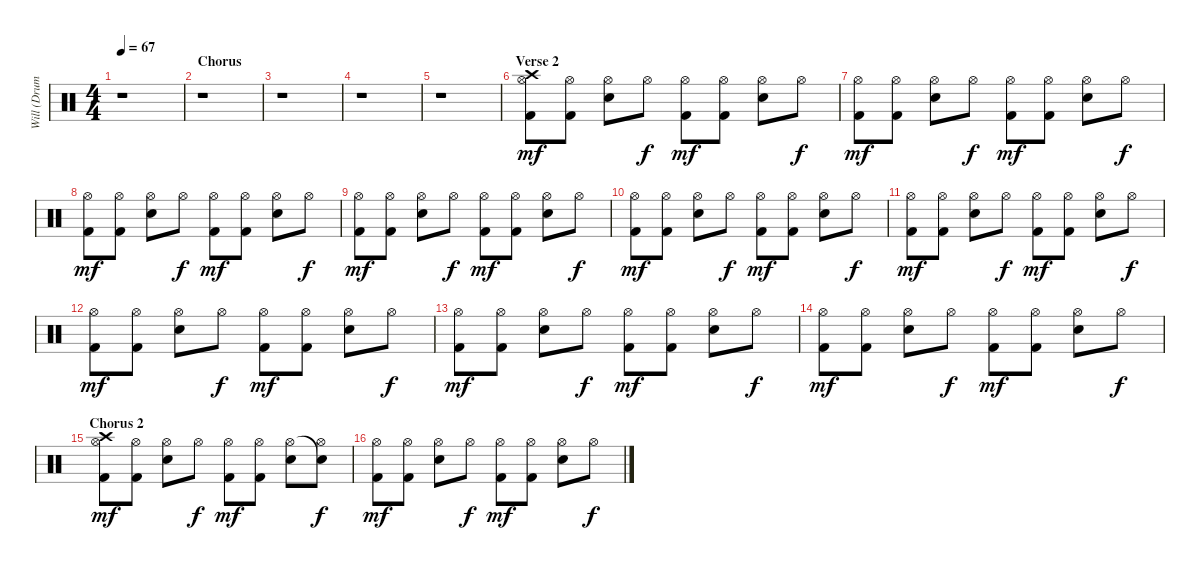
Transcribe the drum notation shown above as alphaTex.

\track ("Will (Drums)" "Will (Drum") {instrument percussion}
\staff {score}
\articulation defaults
\ts (4 4)
\tempo 67
\clef neutral
\ks c
r.1{dy mf} |
\section ("" "Chorus")
r.1 |
r.1 |
r.1 |
r.1 |
\section ("" "Verse 2")
("Kick (hit) 2" "Hi-Hat (open)" "Crash high (hit)").8 ("Kick (hit) 2" "Hi-Hat (open)").8 ("Snare (hit) 2" "Hi-Hat (open)").8 "Hi-Hat (open)".8{dy f} ("Kick (hit) 2" "Hi-Hat (open)").8{dy mf} ("Kick (hit) 2" "Hi-Hat (open)").8 ("Snare (hit) 2" "Hi-Hat (open)").8 "Hi-Hat (open)".8{dy f} |
("Kick (hit) 2" "Hi-Hat (open)").8{dy mf} ("Kick (hit) 2" "Hi-Hat (open)").8 ("Snare (hit) 2" "Hi-Hat (open)").8 "Hi-Hat (open)".8{dy f} ("Kick (hit) 2" "Hi-Hat (open)").8{dy mf} ("Kick (hit) 2" "Hi-Hat (open)").8 ("Snare (hit) 2" "Hi-Hat (open)").8 "Hi-Hat (open)".8{dy f} |
("Kick (hit) 2" "Hi-Hat (open)").8{dy mf} ("Kick (hit) 2" "Hi-Hat (open)").8 ("Snare (hit) 2" "Hi-Hat (open)").8 "Hi-Hat (open)".8{dy f} ("Kick (hit) 2" "Hi-Hat (open)").8{dy mf} ("Kick (hit) 2" "Hi-Hat (open)").8 ("Snare (hit) 2" "Hi-Hat (open)").8 "Hi-Hat (open)".8{dy f} |
("Kick (hit) 2" "Hi-Hat (open)").8{dy mf} ("Kick (hit) 2" "Hi-Hat (open)").8 ("Snare (hit) 2" "Hi-Hat (open)").8 "Hi-Hat (open)".8{dy f} ("Kick (hit) 2" "Hi-Hat (open)").8{dy mf} ("Kick (hit) 2" "Hi-Hat (open)").8 ("Snare (hit) 2" "Hi-Hat (open)").8 "Hi-Hat (open)".8{dy f} |
("Kick (hit) 2" "Hi-Hat (open)").8{dy mf} ("Kick (hit) 2" "Hi-Hat (open)").8 ("Snare (hit) 2" "Hi-Hat (open)").8 "Hi-Hat (open)".8{dy f} ("Kick (hit) 2" "Hi-Hat (open)").8{dy mf} ("Kick (hit) 2" "Hi-Hat (open)").8 ("Snare (hit) 2" "Hi-Hat (open)").8 "Hi-Hat (open)".8{dy f} |
("Kick (hit) 2" "Hi-Hat (open)").8{dy mf} ("Kick (hit) 2" "Hi-Hat (open)").8 ("Snare (hit) 2" "Hi-Hat (open)").8 "Hi-Hat (open)".8{dy f} ("Kick (hit) 2" "Hi-Hat (open)").8{dy mf} ("Kick (hit) 2" "Hi-Hat (open)").8 ("Snare (hit) 2" "Hi-Hat (open)").8 "Hi-Hat (open)".8{dy f} |
("Kick (hit) 2" "Hi-Hat (open)").8{dy mf} ("Kick (hit) 2" "Hi-Hat (open)").8 ("Snare (hit) 2" "Hi-Hat (open)").8 "Hi-Hat (open)".8{dy f} ("Kick (hit) 2" "Hi-Hat (open)").8{dy mf} ("Kick (hit) 2" "Hi-Hat (open)").8 ("Snare (hit) 2" "Hi-Hat (open)").8 "Hi-Hat (open)".8{dy f} |
("Kick (hit) 2" "Hi-Hat (open)").8{dy mf} ("Kick (hit) 2" "Hi-Hat (open)").8 ("Snare (hit) 2" "Hi-Hat (open)").8 "Hi-Hat (open)".8{dy f} ("Kick (hit) 2" "Hi-Hat (open)").8{dy mf} ("Kick (hit) 2" "Hi-Hat (open)").8 ("Snare (hit) 2" "Hi-Hat (open)").8 "Hi-Hat (open)".8{dy f} |
("Kick (hit) 2" "Hi-Hat (open)").8{dy mf} ("Kick (hit) 2" "Hi-Hat (open)").8 ("Snare (hit) 2" "Hi-Hat (open)").8 "Hi-Hat (open)".8{dy f} ("Kick (hit) 2" "Hi-Hat (open)").8{dy mf} ("Kick (hit) 2" "Hi-Hat (open)").8 ("Snare (hit) 2" "Hi-Hat (open)").8 "Hi-Hat (open)".8{dy f} |
\section ("" "Chorus 2")
("Kick (hit) 2" "Hi-Hat (open)" "Crash high (hit)").8{dy mf} ("Kick (hit) 2" "Hi-Hat (open)").8 ("Snare (hit) 2" "Hi-Hat (open)").8 "Hi-Hat (open)".8{dy f} ("Kick (hit) 2" "Hi-Hat (open)").8{dy mf} ("Kick (hit) 2" "Hi-Hat (open)").8 ("Snare (hit) 2" "Hi-Hat (open)").8 ("Hi-Hat (open)" "Snare (hit)"{t}).8{dy f} |
("Kick (hit) 2" "Hi-Hat (open)").8{dy mf} ("Kick (hit) 2" "Hi-Hat (open)").8 ("Snare (hit) 2" "Hi-Hat (open)").8 "Hi-Hat (open)".8{dy f} ("Kick (hit) 2" "Hi-Hat (open)").8{dy mf} ("Kick (hit) 2" "Hi-Hat (open)").8 ("Snare (hit) 2" "Hi-Hat (open)").8 "Hi-Hat (open)".8{dy f}
